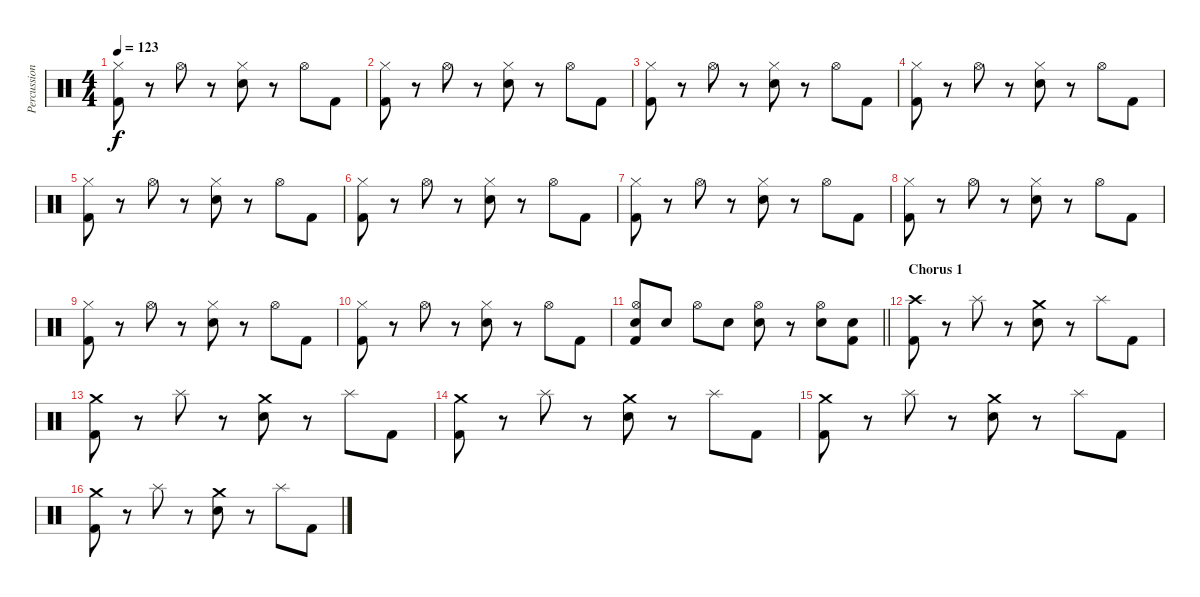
\track ("Percussion" "Percussion") {instrument percussion}
\staff {score}
\articulation defaults
\ts (4 4)
\tempo 123
\clef neutral
\ks c
("Hi-Hat (closed)" "Kick (hit) 2").8{dy f} r.8 "Hi-Hat (open)".8 r.8 ("Hi-Hat (closed)" "Snare (hit) 2").8 r.8 "Hi-Hat (open)".8 "Kick (hit) 2".8 |
("Hi-Hat (closed)" "Kick (hit) 2").8 r.8 "Hi-Hat (open)".8 r.8 ("Hi-Hat (closed)" "Snare (hit) 2").8 r.8 "Hi-Hat (open)".8 "Kick (hit) 2".8 |
("Hi-Hat (closed)" "Kick (hit) 2").8 r.8 "Hi-Hat (open)".8 r.8 ("Hi-Hat (closed)" "Snare (hit) 2").8 r.8 "Hi-Hat (open)".8 "Kick (hit) 2".8 |
("Hi-Hat (closed)" "Kick (hit) 2").8 r.8 "Hi-Hat (open)".8 r.8 ("Hi-Hat (closed)" "Snare (hit) 2").8 r.8 "Hi-Hat (open)".8 "Kick (hit) 2".8 |
("Hi-Hat (closed)" "Kick (hit) 2").8 r.8 "Hi-Hat (open)".8 r.8 ("Hi-Hat (closed)" "Snare (hit) 2").8 r.8 "Hi-Hat (open)".8 "Kick (hit) 2".8 |
("Hi-Hat (closed)" "Kick (hit) 2").8 r.8 "Hi-Hat (open)".8 r.8 ("Hi-Hat (closed)" "Snare (hit) 2").8 r.8 "Hi-Hat (open)".8 "Kick (hit) 2".8 |
("Hi-Hat (closed)" "Kick (hit) 2").8 r.8 "Hi-Hat (open)".8 r.8 ("Hi-Hat (closed)" "Snare (hit) 2").8 r.8 "Hi-Hat (open)".8 "Kick (hit) 2".8 |
("Hi-Hat (closed)" "Kick (hit) 2").8 r.8 "Hi-Hat (open)".8 r.8 ("Hi-Hat (closed)" "Snare (hit) 2").8 r.8 "Hi-Hat (open)".8 "Kick (hit) 2".8 |
("Hi-Hat (closed)" "Kick (hit) 2").8 r.8 "Hi-Hat (open)".8 r.8 ("Hi-Hat (closed)" "Snare (hit) 2").8 r.8 "Hi-Hat (open)".8 "Kick (hit) 2".8 |
("Hi-Hat (closed)" "Kick (hit) 2").8 r.8 "Hi-Hat (open)".8 r.8 ("Hi-Hat (closed)" "Snare (hit) 2").8 r.8 "Hi-Hat (open)".8 "Kick (hit) 2".8 |
\barLineRight lightlight
("Hi-Hat (open)" "Snare (hit) 2" "Kick (hit) 2").8 "Snare (hit) 2".8 "Hi-Hat (open)".8 "Snare (hit) 2".8 ("Hi-Hat (open)" "Snare (hit) 2").8 r.8 ("Hi-Hat (open)" "Snare (hit) 2").8 ("Snare (hit) 2" "Kick (hit) 2").8 |
\section ("" "Chorus 1")
("Crash high (hit)" "Kick (hit) 2").8 r.8 "Splash (hit)".8 r.8 ("Crash medium (hit)" "Snare (hit) 2").8 r.8 "Splash (hit)".8 "Kick (hit) 2".8 |
("Crash medium (hit)" "Kick (hit) 2").8 r.8 "Splash (hit)".8 r.8 ("Crash medium (hit)" "Snare (hit) 2").8 r.8 "Splash (hit)".8 "Kick (hit) 2".8 |
("Crash medium (hit)" "Kick (hit) 2").8 r.8 "Splash (hit)".8 r.8 ("Crash medium (hit)" "Snare (hit) 2").8 r.8 "Splash (hit)".8 "Kick (hit) 2".8 |
("Crash medium (hit)" "Kick (hit) 2").8 r.8 "Splash (hit)".8 r.8 ("Crash medium (hit)" "Snare (hit) 2").8 r.8 "Splash (hit)".8 "Kick (hit) 2".8 |
("Crash medium (hit)" "Kick (hit) 2").8 r.8 "Splash (hit)".8 r.8 ("Crash medium (hit)" "Snare (hit) 2").8 r.8 "Splash (hit)".8 "Kick (hit) 2".8
